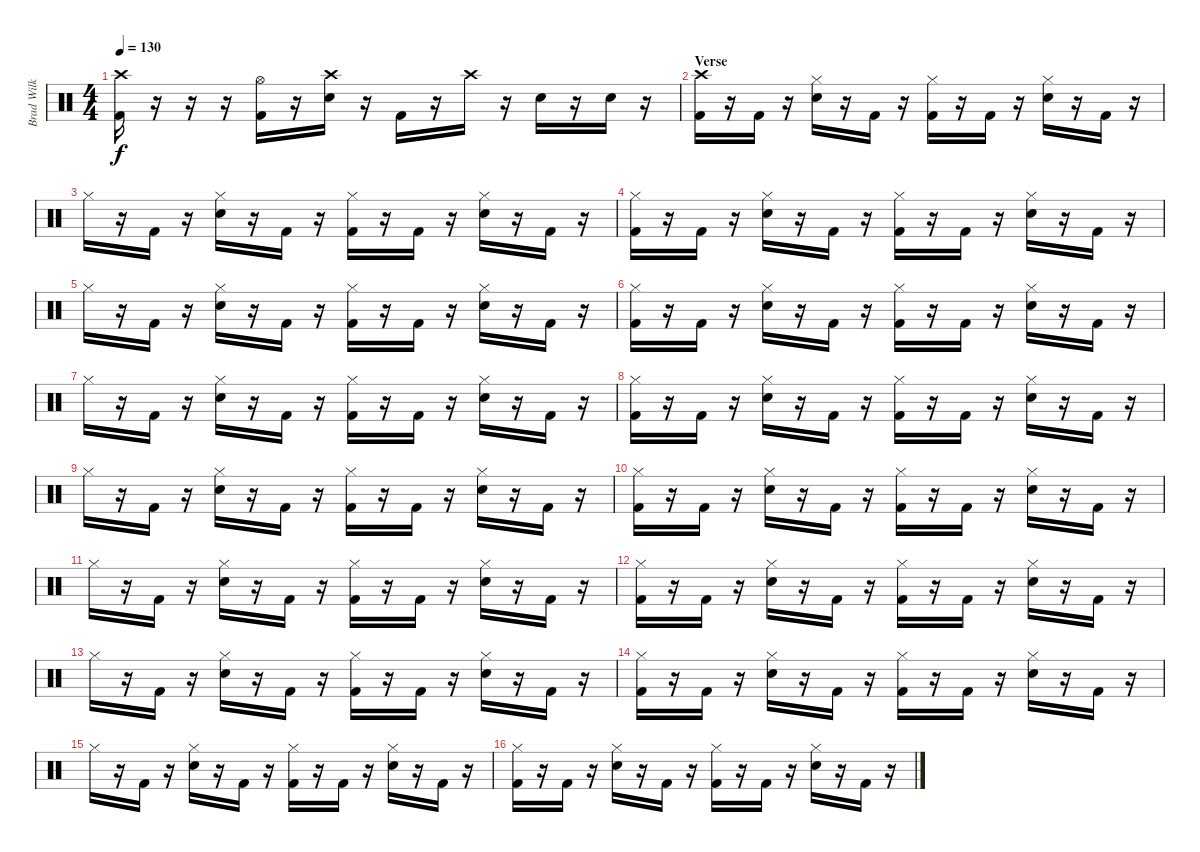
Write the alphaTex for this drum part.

\track ("Brad Wilk - Drums" "Brad Wilk ") {instrument percussion}
\staff {score}
\articulation defaults
\ts (4 4)
\tempo 130
\clef neutral
\ks c
("Crash high (hit)" "Kick (hit) 2").16{dy f} r.16 r.16 r.16 ("Hi-Hat (open)" "Kick (hit) 2").16 r.16 ("Crash high (hit)" "Electric Snare (hit)").16 r.16 "Kick (hit) 2".16 r.16 "Crash high (hit)".16 r.16 "Electric Snare (hit)".16 r.16 "Electric Snare (hit)".16 r.16 |
\section ("" "Verse")
("Crash high (hit)" "Kick (hit) 2").16 r.16 "Kick (hit) 2".16 r.16 ("Hi-Hat (closed)" "Electric Snare (hit)").16 r.16 "Kick (hit) 2".16 r.16 ("Hi-Hat (closed)" "Kick (hit) 2").16 r.16 "Kick (hit) 2".16 r.16 ("Hi-Hat (closed)" "Electric Snare (hit)").16 r.16 "Kick (hit) 2".16 r.16 |
"Hi-Hat (closed)".16 r.16 "Kick (hit) 2".16 r.16 ("Hi-Hat (closed)" "Electric Snare (hit)").16 r.16 "Kick (hit) 2".16 r.16 ("Hi-Hat (closed)" "Kick (hit) 2").16 r.16 "Kick (hit) 2".16 r.16 ("Hi-Hat (closed)" "Electric Snare (hit)").16 r.16 "Kick (hit) 2".16 r.16 |
("Hi-Hat (closed)" "Kick (hit) 2").16 r.16 "Kick (hit) 2".16 r.16 ("Hi-Hat (closed)" "Electric Snare (hit)").16 r.16 "Kick (hit) 2".16 r.16 ("Hi-Hat (closed)" "Kick (hit) 2").16 r.16 "Kick (hit) 2".16 r.16 ("Hi-Hat (closed)" "Electric Snare (hit)").16 r.16 "Kick (hit) 2".16 r.16 |
"Hi-Hat (closed)".16 r.16 "Kick (hit) 2".16 r.16 ("Hi-Hat (closed)" "Electric Snare (hit)").16 r.16 "Kick (hit) 2".16 r.16 ("Hi-Hat (closed)" "Kick (hit) 2").16 r.16 "Kick (hit) 2".16 r.16 ("Hi-Hat (closed)" "Electric Snare (hit)").16 r.16 "Kick (hit) 2".16 r.16 |
("Hi-Hat (closed)" "Kick (hit) 2").16 r.16 "Kick (hit) 2".16 r.16 ("Hi-Hat (closed)" "Electric Snare (hit)").16 r.16 "Kick (hit) 2".16 r.16 ("Hi-Hat (closed)" "Kick (hit) 2").16 r.16 "Kick (hit) 2".16 r.16 ("Hi-Hat (closed)" "Electric Snare (hit)").16 r.16 "Kick (hit) 2".16 r.16 |
"Hi-Hat (closed)".16 r.16 "Kick (hit) 2".16 r.16 ("Hi-Hat (closed)" "Electric Snare (hit)").16 r.16 "Kick (hit) 2".16 r.16 ("Hi-Hat (closed)" "Kick (hit) 2").16 r.16 "Kick (hit) 2".16 r.16 ("Hi-Hat (closed)" "Electric Snare (hit)").16 r.16 "Kick (hit) 2".16 r.16 |
("Hi-Hat (closed)" "Kick (hit) 2").16 r.16 "Kick (hit) 2".16 r.16 ("Hi-Hat (closed)" "Electric Snare (hit)").16 r.16 "Kick (hit) 2".16 r.16 ("Hi-Hat (closed)" "Kick (hit) 2").16 r.16 "Kick (hit) 2".16 r.16 ("Hi-Hat (closed)" "Electric Snare (hit)").16 r.16 "Kick (hit) 2".16 r.16 |
"Hi-Hat (closed)".16 r.16 "Kick (hit) 2".16 r.16 ("Hi-Hat (closed)" "Electric Snare (hit)").16 r.16 "Kick (hit) 2".16 r.16 ("Hi-Hat (closed)" "Kick (hit) 2").16 r.16 "Kick (hit) 2".16 r.16 ("Hi-Hat (closed)" "Electric Snare (hit)").16 r.16 "Kick (hit) 2".16 r.16 |
("Hi-Hat (closed)" "Kick (hit) 2").16 r.16 "Kick (hit) 2".16 r.16 ("Hi-Hat (closed)" "Electric Snare (hit)").16 r.16 "Kick (hit) 2".16 r.16 ("Hi-Hat (closed)" "Kick (hit) 2").16 r.16 "Kick (hit) 2".16 r.16 ("Hi-Hat (closed)" "Electric Snare (hit)").16 r.16 "Kick (hit) 2".16 r.16 |
"Hi-Hat (closed)".16 r.16 "Kick (hit) 2".16 r.16 ("Hi-Hat (closed)" "Electric Snare (hit)").16 r.16 "Kick (hit) 2".16 r.16 ("Hi-Hat (closed)" "Kick (hit) 2").16 r.16 "Kick (hit) 2".16 r.16 ("Hi-Hat (closed)" "Electric Snare (hit)").16 r.16 "Kick (hit) 2".16 r.16 |
("Hi-Hat (closed)" "Kick (hit) 2").16 r.16 "Kick (hit) 2".16 r.16 ("Hi-Hat (closed)" "Electric Snare (hit)").16 r.16 "Kick (hit) 2".16 r.16 ("Hi-Hat (closed)" "Kick (hit) 2").16 r.16 "Kick (hit) 2".16 r.16 ("Hi-Hat (closed)" "Electric Snare (hit)").16 r.16 "Kick (hit) 2".16 r.16 |
"Hi-Hat (closed)".16 r.16 "Kick (hit) 2".16 r.16 ("Hi-Hat (closed)" "Electric Snare (hit)").16 r.16 "Kick (hit) 2".16 r.16 ("Hi-Hat (closed)" "Kick (hit) 2").16 r.16 "Kick (hit) 2".16 r.16 ("Hi-Hat (closed)" "Electric Snare (hit)").16 r.16 "Kick (hit) 2".16 r.16 |
("Hi-Hat (closed)" "Kick (hit) 2").16 r.16 "Kick (hit) 2".16 r.16 ("Hi-Hat (closed)" "Electric Snare (hit)").16 r.16 "Kick (hit) 2".16 r.16 ("Hi-Hat (closed)" "Kick (hit) 2").16 r.16 "Kick (hit) 2".16 r.16 ("Hi-Hat (closed)" "Electric Snare (hit)").16 r.16 "Kick (hit) 2".16 r.16 |
"Hi-Hat (closed)".16 r.16 "Kick (hit) 2".16 r.16 ("Hi-Hat (closed)" "Electric Snare (hit)").16 r.16 "Kick (hit) 2".16 r.16 ("Hi-Hat (closed)" "Kick (hit) 2").16 r.16 "Kick (hit) 2".16 r.16 ("Hi-Hat (closed)" "Electric Snare (hit)").16 r.16 "Kick (hit) 2".16 r.16 |
("Hi-Hat (closed)" "Kick (hit) 2").16 r.16 "Kick (hit) 2".16 r.16 ("Hi-Hat (closed)" "Electric Snare (hit)").16 r.16 "Kick (hit) 2".16 r.16 ("Hi-Hat (closed)" "Kick (hit) 2").16 r.16 "Kick (hit) 2".16 r.16 ("Hi-Hat (closed)" "Electric Snare (hit)").16 r.16 "Kick (hit) 2".16 r.16
